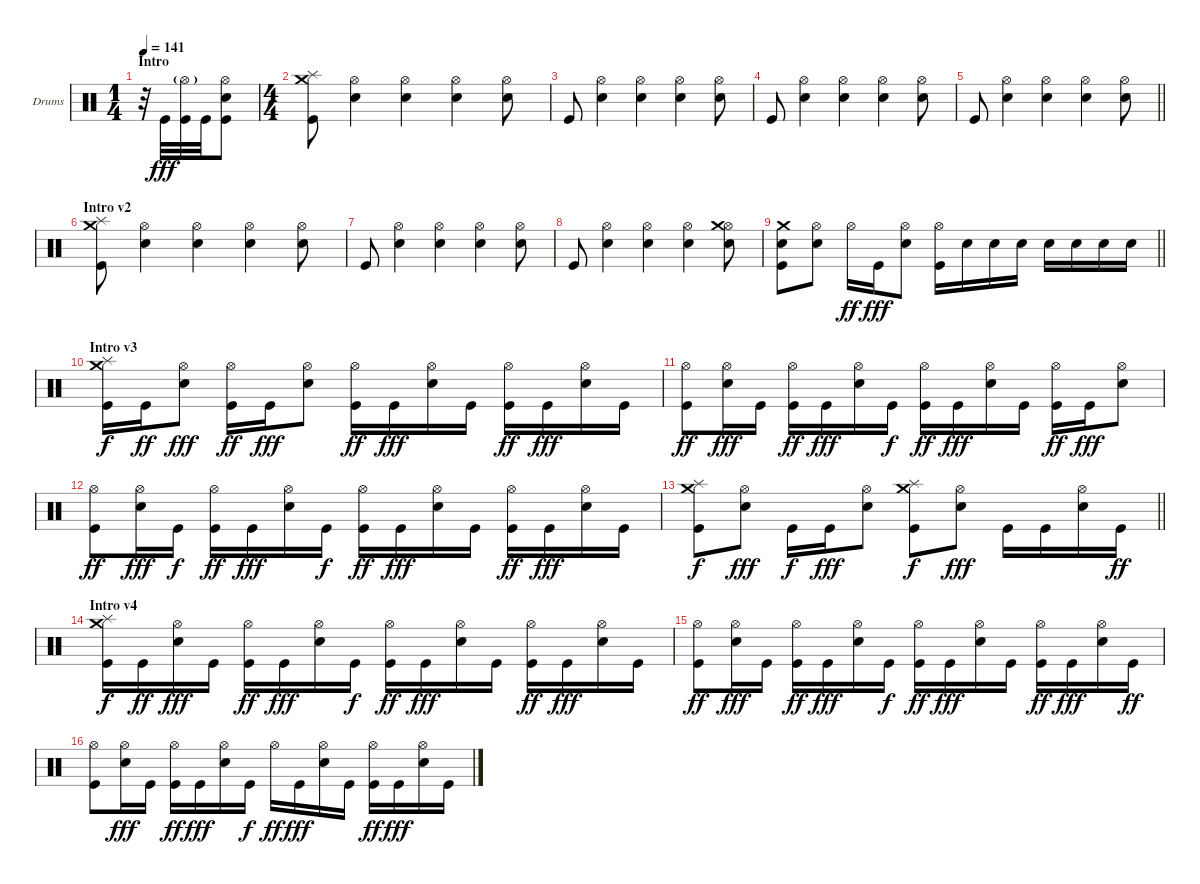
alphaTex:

\bracketExtendMode groupsimilarinstruments
\firstSystemTrackNameOrientation horizontal
\otherSystemsTrackNameOrientation horizontal
\track ("Drumkit" "Drums") {solo instrument percussion}
\staff {score}
\articulation defaults
\ts (1 4)
\section ("" "Intro")
\tempo 141
\clef neutral
\scale
0.390805
\ks c
r.32{dy fff} "Kick (hit)".32 ("Hi-Hat (open)"{g} "Kick (hit)").32 "Kick (hit)".32 ("Hi-Hat (open)" "Snare (hit) 2" "Kick (hit)").8 |
\ts (4 4)
\scale
0.390805 ("Splash (hit)" "Crash medium (hit)" "Kick (hit)").8 ("Hi-Hat (open)" "Snare (hit) 2").4 ("Hi-Hat (open)" "Snare (hit) 2").4 ("Hi-Hat (open)" "Snare (hit) 2").4 ("Hi-Hat (open)" "Snare (hit) 2").8 |
\scale
0.218391 "Kick (hit)".8 ("Hi-Hat (open)" "Snare (hit) 2").4 ("Hi-Hat (open)" "Snare (hit) 2").4 ("Hi-Hat (open)" "Snare (hit) 2").4 ("Hi-Hat (open)" "Snare (hit) 2").8 |
\scale
0.333333 "Kick (hit)".8 ("Hi-Hat (open)" "Snare (hit) 2").4 ("Hi-Hat (open)" "Snare (hit) 2").4 ("Hi-Hat (open)" "Snare (hit) 2").4 ("Hi-Hat (open)" "Snare (hit) 2").8 |
\scale
0.333333
\barLineRight lightlight "Kick (hit)".8
("Hi-Hat (open)" "Snare (hit) 2").4 ("Hi-Hat (open)" "Snare (hit) 2").4 ("Hi-Hat (open)" "Snare (hit) 2").4 ("Hi-Hat (open)" "Snare (hit) 2").8 |
\section ("" "Intro v2")
\scale
0.333333 ("Splash (hit)" "Crash medium (hit)" "Kick (hit)").8 ("Hi-Hat (open)" "Snare (hit) 2").4 ("Hi-Hat (open)" "Snare (hit) 2").4 ("Hi-Hat (open)" "Snare (hit) 2").4 ("Hi-Hat (open)" "Snare (hit) 2").8 |
\scale
0.333333 "Kick (hit)".8 ("Hi-Hat (open)" "Snare (hit) 2").4 ("Hi-Hat (open)" "Snare (hit) 2").4 ("Hi-Hat (open)" "Snare (hit) 2").4 ("Hi-Hat (open)" "Snare (hit) 2").8 |
\scale
0.333333 "Kick (hit)".8 ("Hi-Hat (open)" "Snare (hit) 2").4 ("Hi-Hat (open)" "Snare (hit) 2").4 ("Hi-Hat (open)" "Snare (hit) 2").4 ("Hi-Hat (open)" "Snare (hit) 2" "Crash medium (hit)").8 |
\scale
0.333333
\barLineRight lightlight
("Crash medium (hit)" "Snare (hit) 2" "Kick (hit)").8 ("Hi-Hat (open)" "Snare (hit) 2").8 "Hi-Hat (open)".16{dy ff} "Kick (hit)".16{dy fff} ("Hi-Hat (open)" "Snare (hit) 2").8 ("Hi-Hat (open)" "Kick (hit)").16 "Snare (hit) 2".16 "Snare (hit) 2".16 "Snare (hit) 2".16 "Snare (hit) 2".16 "Snare (hit) 2".16 "Snare (hit) 2".16 "Snare (hit) 2".16 |
\section ("" "Intro v3")
\scale
0.333333 ("Splash (hit)" "Crash medium (hit)" "Kick (hit)").16{dy f} "Kick (hit)".16{dy ff} ("Hi-Hat (open)" "Snare (hit) 2").8{dy fff} ("Hi-Hat (open)" "Kick (hit)").16{dy ff} "Kick (hit)".16{dy fff} ("Hi-Hat (open)" "Snare (hit) 2").8 ("Hi-Hat (open)" "Kick (hit)").16{dy ff} "Kick (hit)".16{dy fff} ("Hi-Hat (open)" "Snare (hit) 2").16 "Kick (hit)".16 ("Hi-Hat (open)" "Kick (hit)").16{dy ff} "Kick (hit)".16{dy fff} ("Hi-Hat (open)" "Snare (hit) 2").16 "Kick (hit)".16 |
\scale
0.333333 ("Hi-Hat (open)" "Kick (hit)").8{dy ff} ("Hi-Hat (open)" "Snare (hit) 2").16{dy fff} "Kick (hit)".16 ("Hi-Hat (open)" "Kick (hit)").16{dy ff} "Kick (hit)".16{dy fff} ("Hi-Hat (open)" "Snare (hit) 2").16 "Kick (hit)".16{dy f} ("Hi-Hat (open)" "Kick (hit)").16{dy ff} "Kick (hit)".16{dy fff} ("Hi-Hat (open)" "Snare (hit) 2").16 "Kick (hit)".16 ("Hi-Hat (open)" "Kick (hit)").16{dy ff} "Kick (hit)".16{dy fff} ("Hi-Hat (open)" "Snare (hit) 2").8 |
\scale
0.333333 ("Hi-Hat (open)" "Kick (hit)").8{dy ff} ("Hi-Hat (open)" "Snare (hit) 2").16{dy fff} "Kick (hit)".16{dy f} ("Hi-Hat (open)" "Kick (hit)").16{dy ff} "Kick (hit)".16{dy fff} ("Hi-Hat (open)" "Snare (hit) 2").16 "Kick (hit)".16{dy f} ("Hi-Hat (open)" "Kick (hit)").16{dy ff} "Kick (hit)".16{dy fff} ("Hi-Hat (open)" "Snare (hit) 2").16 "Kick (hit)".16 ("Hi-Hat (open)" "Kick (hit)").16{dy ff} "Kick (hit)".16{dy fff} ("Hi-Hat (open)" "Snare (hit) 2").16 "Kick (hit)".16 |
\scale
0.333333
\barLineRight lightlight
("Splash (hit)" "Crash medium (hit)" "Kick (hit)").8{dy f} ("Hi-Hat (open)" "Snare (hit) 2").8{dy fff} "Kick (hit)".16{dy f} "Kick (hit)".16{dy fff} ("Hi-Hat (open)" "Snare (hit) 2").8 ("Splash (hit)" "Crash medium (hit)" "Kick (hit)").8{dy f} ("Hi-Hat (open)" "Snare (hit) 2").8{dy fff} "Kick (hit)".16 "Kick (hit)".16 ("Hi-Hat (open)" "Snare (hit) 2").16 "Kick (hit)".16{dy ff} |
\section ("" "Intro v4")
\scale
0.333333 ("Splash (hit)" "Crash medium (hit)" "Kick (hit)").16{dy f} "Kick (hit)".16{dy ff} ("Hi-Hat (open)" "Snare (hit) 2").16{dy fff} "Kick (hit)".16 ("Hi-Hat (open)" "Kick (hit)").16{dy ff} "Kick (hit)".16{dy fff} ("Hi-Hat (open)" "Snare (hit) 2").16 "Kick (hit)".16{dy f} ("Hi-Hat (open)" "Kick (hit)").16{dy ff} "Kick (hit)".16{dy fff} ("Hi-Hat (open)" "Snare (hit) 2").16 "Kick (hit)".16 ("Hi-Hat (open)" "Kick (hit)").16{dy ff} "Kick (hit)".16{dy fff} ("Hi-Hat (open)" "Snare (hit) 2").16 "Kick (hit)".16 |
\scale
0.333333 ("Hi-Hat (open)" "Kick (hit)").8{dy ff} ("Hi-Hat (open)" "Snare (hit) 2").16{dy fff} "Kick (hit)".16 ("Hi-Hat (open)" "Kick (hit)").16{dy ff} "Kick (hit)".16{dy fff} ("Hi-Hat (open)" "Snare (hit) 2").16 "Kick (hit)".16{dy f} ("Hi-Hat (open)" "Kick (hit)").16{dy ff} "Kick (hit)".16{dy fff} ("Hi-Hat (open)" "Snare (hit) 2").16 "Kick (hit)".16 ("Hi-Hat (open)" "Kick (hit)").16{dy ff} "Kick (hit)".16{dy fff} ("Hi-Hat (open)" "Snare (hit) 2").16 "Kick (hit)".16{dy ff} |
\scale
0.333333 ("Hi-Hat (open)" "Kick (hit)").8 ("Hi-Hat (open)" "Snare (hit) 2").16{dy fff} "Kick (hit)".16 ("Hi-Hat (open)" "Kick (hit)").16{dy ff} "Kick (hit)".16{dy fff} ("Hi-Hat (open)" "Snare (hit) 2").16 "Kick (hit)".16{dy f} "Hi-Hat (open)".16{dy ff} "Kick (hit)".16{dy fff} ("Hi-Hat (open)" "Snare (hit) 2").16 "Kick (hit)".16 ("Hi-Hat (open)" "Kick (hit)").16{dy ff} "Kick (hit)".16{dy fff} ("Hi-Hat (open)" "Snare (hit) 2").16 "Kick (hit)".16
